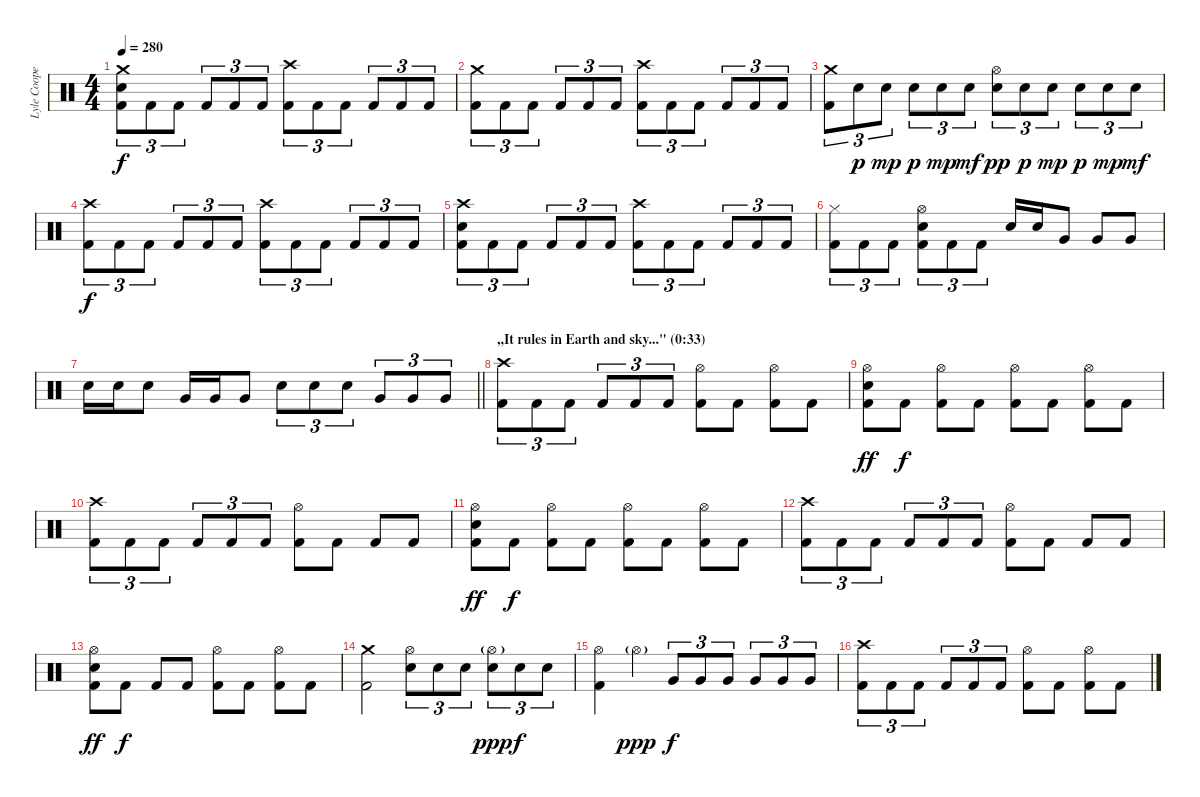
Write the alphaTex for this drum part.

\track ("Lyle Cooper [Drums]" "Lyle Coope") {instrument percussion}
\staff {score}
\articulation defaults
\ts (4 4)
\tempo 280
\clef neutral
\ks c
("Crash medium (hit)" "Electric Snare (hit)" "Kick (hit) 2").8{tu (3 2) dy f} "Kick (hit) 2".8{tu (3 2)} "Kick (hit) 2".8{tu (3 2)} "Kick (hit) 2".8{tu (3 2)} "Kick (hit) 2".8{tu (3 2)} "Kick (hit) 2".8{tu (3 2)} ("Crash high (hit)" "Kick (hit) 2").8{tu (3 2)} "Kick (hit) 2".8{tu (3 2)} "Kick (hit) 2".8{tu (3 2)} "Kick (hit) 2".8{tu (3 2)} "Kick (hit) 2".8{tu (3 2)} "Kick (hit) 2".8{tu (3 2)} |
("Crash medium (hit)" "Kick (hit) 2").8{tu (3 2)} "Kick (hit) 2".8{tu (3 2)} "Kick (hit) 2".8{tu (3 2)} "Kick (hit) 2".8{tu (3 2)} "Kick (hit) 2".8{tu (3 2)} "Kick (hit) 2".8{tu (3 2)} ("Crash high (hit)" "Kick (hit) 2").8{tu (3 2)} "Kick (hit) 2".8{tu (3 2)} "Kick (hit) 2".8{tu (3 2)} "Kick (hit) 2".8{tu (3 2)} "Kick (hit) 2".8{tu (3 2)} "Kick (hit) 2".8{tu (3 2)} |
("Crash medium (hit)" "Kick (hit) 2").8{tu (3 2)} "Electric Snare (hit)".8{tu (3 2) dy p} "Electric Snare (hit)".8{tu (3 2) dy mp} "Electric Snare (hit)".8{tu (3 2) dy p} "Electric Snare (hit)".8{tu (3 2) dy mp} "Electric Snare (hit)".8{tu (3 2) dy mf} ("Hi-Hat (open)" "Electric Snare (hit)").8{tu (3 2) dy pp} "Electric Snare (hit)".8{tu (3 2) dy p} "Electric Snare (hit)".8{tu (3 2) dy mp} "Electric Snare (hit)".8{tu (3 2) dy p} "Electric Snare (hit)".8{tu (3 2) dy mp} "Electric Snare (hit)".8{tu (3 2) dy mf} |
("Crash high (hit)" "Kick (hit) 2").8{tu (3 2) dy f} "Kick (hit) 2".8{tu (3 2)} "Kick (hit) 2".8{tu (3 2)} "Kick (hit) 2".8{tu (3 2)} "Kick (hit) 2".8{tu (3 2)} "Kick (hit) 2".8{tu (3 2)} ("Crash high (hit)" "Kick (hit) 2").8{tu (3 2)} "Kick (hit) 2".8{tu (3 2)} "Kick (hit) 2".8{tu (3 2)} "Kick (hit) 2".8{tu (3 2)} "Kick (hit) 2".8{tu (3 2)} "Kick (hit) 2".8{tu (3 2)} |
("Crash high (hit)" "Electric Snare (hit)" "Kick (hit) 2").8{tu (3 2)} "Kick (hit) 2".8{tu (3 2)} "Kick (hit) 2".8{tu (3 2)} "Kick (hit) 2".8{tu (3 2)} "Kick (hit) 2".8{tu (3 2)} "Kick (hit) 2".8{tu (3 2)} ("Crash high (hit)" "Kick (hit) 2").8{tu (3 2)} "Kick (hit) 2".8{tu (3 2)} "Kick (hit) 2".8{tu (3 2)} "Kick (hit) 2".8{tu (3 2)} "Kick (hit) 2".8{tu (3 2)} "Kick (hit) 2".8{tu (3 2)} |
("Hi-Hat (closed)" "Kick (hit) 2").8{tu (3 2)} "Kick (hit) 2".8{tu (3 2)} "Kick (hit) 2".8{tu (3 2)} ("Hi-Hat (open)" "Electric Snare (hit)" "Kick (hit) 2").8{tu (3 2)} "Kick (hit) 2".8{tu (3 2)} "Kick (hit) 2".8{tu (3 2)} "Electric Snare (hit)".16 "Electric Snare (hit)".16 "Very Low Tom (hit)".8 "Very Low Tom (hit)".8 "Very Low Tom (hit)".8 |
\barLineRight lightlight "Electric Snare (hit)".16 "Electric Snare (hit)".16 "Electric Snare (hit)".8 "Very Low Tom (hit)".16 "Very Low Tom (hit)".16 "Very Low Tom (hit)".8 "Electric Snare (hit)".8{tu (3 2)} "Electric Snare (hit)".8{tu (3 2)} "Electric Snare (hit)".8{tu (3 2)} "Very Low Tom (hit)".8{tu (3 2)} "Very Low Tom (hit)".8{tu (3 2)} "Very Low Tom (hit)".8{tu (3 2)}
|
\section ("" ",,It rules in Earth and sky...\" (0:33)")
("Crash high (hit)" "Kick (hit) 2").8{tu (3 2)} "Kick (hit) 2".8{tu (3 2)} "Kick (hit) 2".8{tu (3 2)} "Kick (hit) 2".8{tu (3 2)} "Kick (hit) 2".8{tu (3 2)} "Kick (hit) 2".8{tu (3 2)} ("Hi-Hat (open)" "Kick (hit) 2").8 "Kick (hit) 2".8 ("Hi-Hat (open)" "Kick (hit) 2").8 "Kick (hit) 2".8 |
("Hi-Hat (open)" "Electric Snare (hit)" "Kick (hit) 2").8{dy ff} "Kick (hit) 2".8{dy f} ("Hi-Hat (open)" "Kick (hit) 2").8 "Kick (hit) 2".8 ("Hi-Hat (open)" "Kick (hit) 2").8 "Kick (hit) 2".8 ("Hi-Hat (open)" "Kick (hit) 2").8 "Kick (hit) 2".8 |
("Crash high (hit)" "Kick (hit) 2").8{tu (3 2)} "Kick (hit) 2".8{tu (3 2)} "Kick (hit) 2".8{tu (3 2)} "Kick (hit) 2".8{tu (3 2)} "Kick (hit) 2".8{tu (3 2)} "Kick (hit) 2".8{tu (3 2)} ("Hi-Hat (open)" "Kick (hit) 2").8 "Kick (hit) 2".8 "Kick (hit) 2".8 "Kick (hit) 2".8 |
("Hi-Hat (open)" "Electric Snare (hit)" "Kick (hit) 2").8{dy ff} "Kick (hit) 2".8{dy f} ("Hi-Hat (open)" "Kick (hit) 2").8 "Kick (hit) 2".8 ("Hi-Hat (open)" "Kick (hit) 2").8 "Kick (hit) 2".8 ("Hi-Hat (open)" "Kick (hit) 2").8 "Kick (hit) 2".8 |
("Crash high (hit)" "Kick (hit) 2").8{tu (3 2)} "Kick (hit) 2".8{tu (3 2)} "Kick (hit) 2".8{tu (3 2)} "Kick (hit) 2".8{tu (3 2)} "Kick (hit) 2".8{tu (3 2)} "Kick (hit) 2".8{tu (3 2)} ("Hi-Hat (open)" "Kick (hit) 2").8 "Kick (hit) 2".8 "Kick (hit) 2".8 "Kick (hit) 2".8 |
("Hi-Hat (open)" "Electric Snare (hit)" "Kick (hit) 2").8{dy ff} "Kick (hit) 2".8{dy f} "Kick (hit) 2".8 "Kick (hit) 2".8 ("Hi-Hat (open)" "Kick (hit) 2").8 "Kick (hit) 2".8 ("Hi-Hat (open)" "Kick (hit) 2").8 "Kick (hit) 2".8 |
("Crash medium (hit)" "Kick (hit) 2").2 ("Hi-Hat (open)" "Electric Snare (hit)").8{tu (3 2)} "Electric Snare (hit)".8{tu (3 2)} "Electric Snare (hit)".8{tu (3 2)} ("Hi-Hat (open)"{g} "Electric Snare (hit)").8{tu (3 2) dy ppp} "Electric Snare (hit)".8{tu (3 2) dy f} "Electric Snare (hit)".8{tu (3 2)} |
("Hi-Hat (open)" "Kick (hit) 2").4 "Hi-Hat (open)"{g}.4{dy ppp} "Very Low Tom (hit)".8{tu (3 2) dy f} "Very Low Tom (hit)".8{tu (3 2)} "Very Low Tom (hit)".8{tu (3 2)} "Very Low Tom (hit)".8{tu (3 2)} "Very Low Tom (hit)".8{tu (3 2)} "Very Low Tom (hit)".8{tu (3 2)} |
("Crash high (hit)" "Kick (hit) 2").8{tu (3 2)} "Kick (hit) 2".8{tu (3 2)} "Kick (hit) 2".8{tu (3 2)} "Kick (hit) 2".8{tu (3 2)} "Kick (hit) 2".8{tu (3 2)} "Kick (hit) 2".8{tu (3 2)} ("Hi-Hat (open)" "Kick (hit) 2").8 "Kick (hit) 2".8 ("Hi-Hat (open)" "Kick (hit) 2").8 "Kick (hit) 2".8
